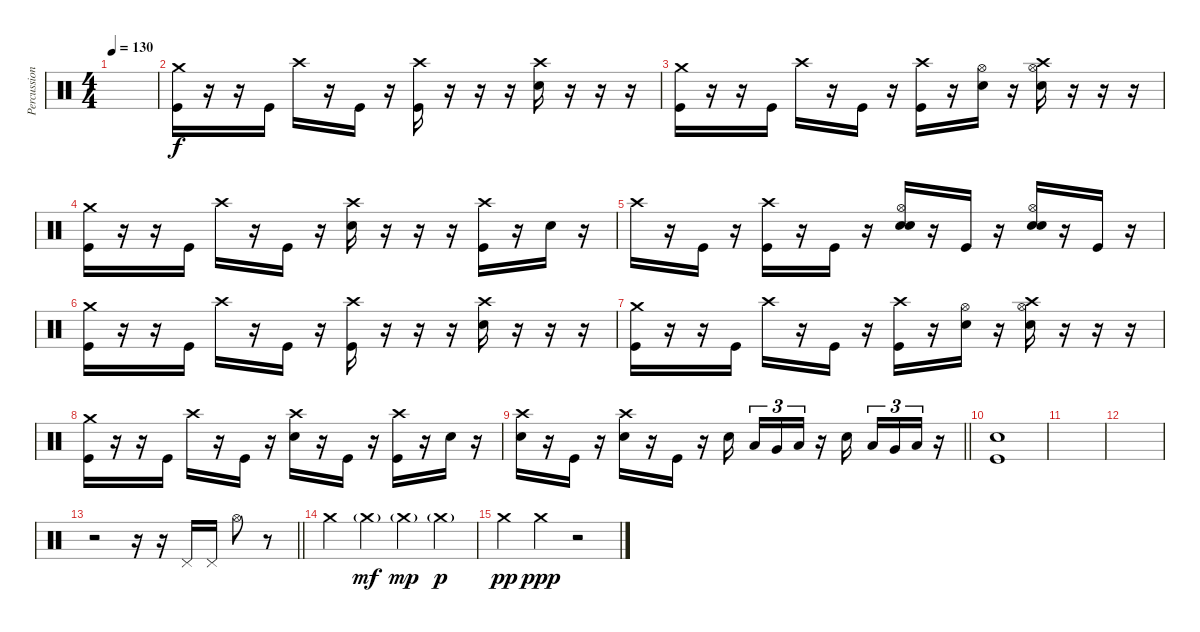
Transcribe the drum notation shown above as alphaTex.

\track ("Percussion" "Percussion") {instrument percussion}
\staff {score}
\articulation defaults
\ts (4 4)
\tempo 130
\clef neutral
\ks c
|
("Crash medium (hit)" "Kick (hit)").16{dy f} r.16 r.16 "Kick (hit)".16 "Crash high (hit)".16 r.16 "Kick (hit)".16 r.16 ("Crash high (hit)" "Kick (hit)").16 r.16 r.16 r.16 ("Crash high (hit)" "Electric Snare (hit)").16 r.16 r.16 r.16 |
("Crash medium (hit)" "Kick (hit)").16 r.16 r.16 "Kick (hit)".16 "Crash high (hit)".16 r.16 "Kick (hit)".16 r.16 ("Crash high (hit)" "Kick (hit)").16 r.16 ("Hi-Hat (open)" "Electric Snare (hit)").16 r.16 ("Hi-Hat (open)" "Crash high (hit)" "Electric Snare (hit)").16 r.16 r.16 r.16 |
("Crash medium (hit)" "Kick (hit)").16 r.16 r.16 "Kick (hit)".16 "Crash high (hit)".16 r.16 "Kick (hit)".16 r.16 ("Crash high (hit)" "Electric Snare (hit)").16 r.16 r.16 r.16 ("Crash high (hit)" "Kick (hit)").16 r.16 "Electric Snare (hit)".16 r.16 |
"Crash high (hit)".16 r.16 "Kick (hit)".16 r.16 ("Crash high (hit)" "Kick (hit)").16 r.16 "Kick (hit)".16 r.16 ("Hi-Hat (open)" "Snare (hit) 2" "Electric Snare (hit)").16{bd 120} r.16 "Kick (hit)".16 r.16 ("Hi-Hat (open)" "Snare (hit) 2" "Electric Snare (hit)").16{bd 120} r.16 "Kick (hit)".16 r.16 |
("Crash medium (hit)" "Kick (hit)").16 r.16 r.16 "Kick (hit)".16 "Crash high (hit)".16 r.16 "Kick (hit)".16 r.16 ("Crash high (hit)" "Kick (hit)").16 r.16 r.16 r.16 ("Crash high (hit)" "Electric Snare (hit)").16 r.16 r.16 r.16 |
("Crash medium (hit)" "Kick (hit)").16 r.16 r.16 "Kick (hit)".16 "Crash high (hit)".16 r.16 "Kick (hit)".16 r.16 ("Crash high (hit)" "Kick (hit)").16 r.16 ("Hi-Hat (open)" "Electric Snare (hit)").16 r.16 ("Hi-Hat (open)" "Crash high (hit)" "Electric Snare (hit)").16 r.16 r.16 r.16 |
("Crash medium (hit)" "Kick (hit)").16 r.16 r.16 "Kick (hit)".16 "Crash high (hit)".16 r.16 "Kick (hit)".16 r.16 ("Crash high (hit)" "Electric Snare (hit)").16 r.16 "Kick (hit)".16 r.16 ("Crash high (hit)" "Kick (hit)").16 r.16 "Electric Snare (hit)".16 r.16 |
\barLineRight lightlight
("Crash high (hit)" "Electric Snare (hit)").16 r.16 "Kick (hit)".16 r.16 ("Crash high (hit)" "Electric Snare (hit)").16 r.16 "Kick (hit)".16 r.16 "Electric Snare (hit)".16{beam splitsecondary} "Low Tom (hit)".16{tu (3 2)} "Very Low Tom (hit)".16{tu (3 2)} "Low Floor Tom (hit)".16{tu (3 2)} r.16 "Electric Snare (hit)".16{beam splitsecondary} "Low Tom (hit)".16{tu (3 2)} "Very Low Tom (hit)".16{tu (3 2)} "Low Floor Tom (hit)".16{tu (3 2)} r.16 |
\section ("" "")
("Electric Snare (hit)" "Kick (hit)").1 |
|
|
\barLineRight lightlight
r.2 r.16 r.16 "Pedal Hi-Hat (hit)".16 "Pedal Hi-Hat (hit)".16 "Hi-Hat (open)".8 r.8 |
\section ("" "")
"Crash medium (hit)".4 "Crash medium (hit)"{g}.4{dy mf} "Crash medium (hit)"{g}.4{dy mp} "Crash medium (hit)"{g}.4{dy p} |
"Crash medium (hit)".4{dy pp} "Crash medium (hit)".4{dy ppp} r.2
